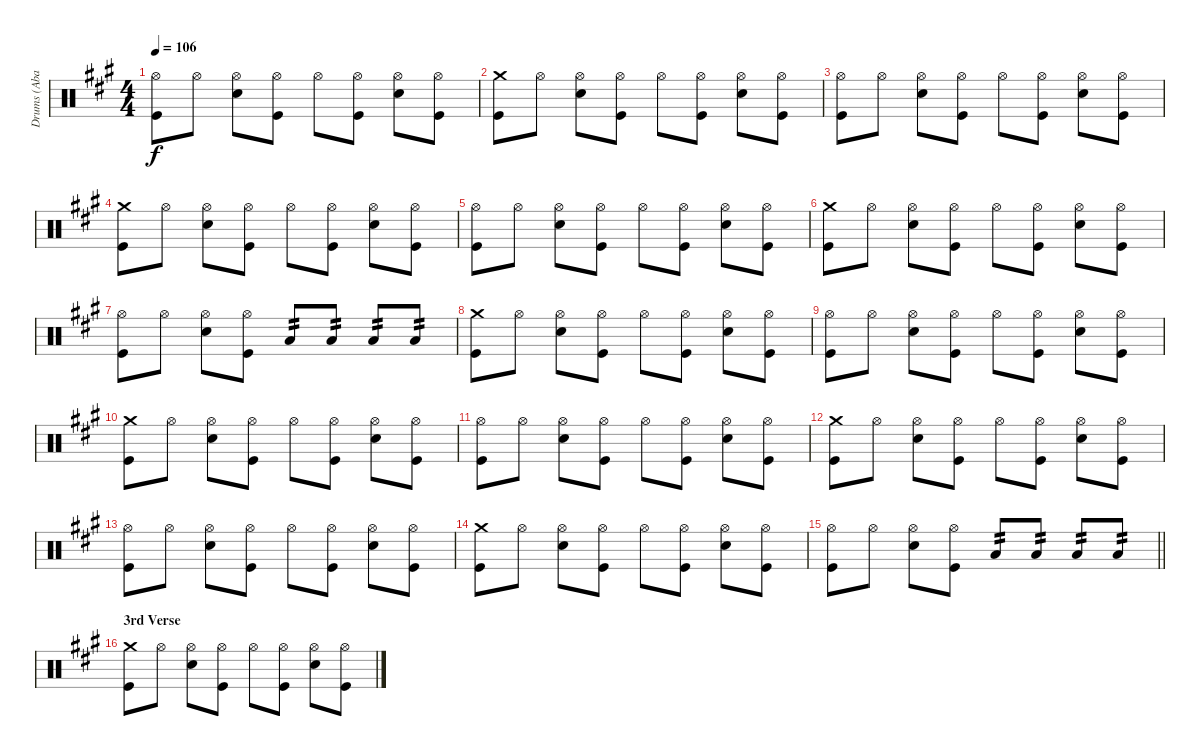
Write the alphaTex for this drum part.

\track ("Drums (Abaddon)" "Drums (Aba") {instrument percussion}
\staff {score}
\articulation defaults
\ts (4 4)
\tempo 106
\clef neutral
\ks f#minor
("Hi-Hat (open)" "Kick (hit)").8{dy f} "Hi-Hat (open)".8 ("Hi-Hat (open)" "Electric Snare (hit)").8 ("Hi-Hat (open)" "Kick (hit)").8 "Hi-Hat (open)".8 ("Hi-Hat (open)" "Kick (hit)").8 ("Hi-Hat (open)" "Electric Snare (hit)").8 ("Hi-Hat (open)" "Kick (hit)").8 |
("Crash medium (hit)" "Kick (hit)").8 "Hi-Hat (open)".8 ("Hi-Hat (open)" "Electric Snare (hit)").8 ("Hi-Hat (open)" "Kick (hit)").8 "Hi-Hat (open)".8 ("Hi-Hat (open)" "Kick (hit)").8 ("Hi-Hat (open)" "Electric Snare (hit)").8 ("Hi-Hat (open)" "Kick (hit)").8 |
("Hi-Hat (open)" "Kick (hit)").8 "Hi-Hat (open)".8 ("Hi-Hat (open)" "Electric Snare (hit)").8 ("Hi-Hat (open)" "Kick (hit)").8 "Hi-Hat (open)".8 ("Hi-Hat (open)" "Kick (hit)").8 ("Hi-Hat (open)" "Electric Snare (hit)").8 ("Hi-Hat (open)" "Kick (hit)").8 |
("Crash medium (hit)" "Kick (hit)").8 "Hi-Hat (open)".8 ("Hi-Hat (open)" "Electric Snare (hit)").8 ("Hi-Hat (open)" "Kick (hit)").8 "Hi-Hat (open)".8 ("Hi-Hat (open)" "Kick (hit)").8 ("Hi-Hat (open)" "Electric Snare (hit)").8 ("Hi-Hat (open)" "Kick (hit)").8 |
("Hi-Hat (open)" "Kick (hit)").8 "Hi-Hat (open)".8 ("Hi-Hat (open)" "Electric Snare (hit)").8 ("Hi-Hat (open)" "Kick (hit)").8 "Hi-Hat (open)".8 ("Hi-Hat (open)" "Kick (hit)").8 ("Hi-Hat (open)" "Electric Snare (hit)").8 ("Hi-Hat (open)" "Kick (hit)").8 |
("Crash medium (hit)" "Kick (hit)").8 "Hi-Hat (open)".8 ("Hi-Hat (open)" "Electric Snare (hit)").8 ("Hi-Hat (open)" "Kick (hit)").8 "Hi-Hat (open)".8 ("Hi-Hat (open)" "Kick (hit)").8 ("Hi-Hat (open)" "Electric Snare (hit)").8 ("Hi-Hat (open)" "Kick (hit)").8 |
("Hi-Hat (open)" "Kick (hit)").8 "Hi-Hat (open)".8 ("Hi-Hat (open)" "Electric Snare (hit)").8 ("Hi-Hat (open)" "Kick (hit)").8 "Low Floor Tom (hit)".8{tp 2} "Low Floor Tom (hit)".8{tp 2} "Low Tom (hit)".8{tp 2} "Low Tom (hit)".8{tp 2} |
("Crash medium (hit)" "Kick (hit)").8 "Hi-Hat (open)".8 ("Hi-Hat (open)" "Electric Snare (hit)").8 ("Hi-Hat (open)" "Kick (hit)").8 "Hi-Hat (open)".8 ("Hi-Hat (open)" "Kick (hit)").8 ("Hi-Hat (open)" "Electric Snare (hit)").8 ("Hi-Hat (open)" "Kick (hit)").8 |
("Hi-Hat (open)" "Kick (hit)").8 "Hi-Hat (open)".8 ("Hi-Hat (open)" "Electric Snare (hit)").8 ("Hi-Hat (open)" "Kick (hit)").8 "Hi-Hat (open)".8 ("Hi-Hat (open)" "Kick (hit)").8 ("Hi-Hat (open)" "Electric Snare (hit)").8 ("Hi-Hat (open)" "Kick (hit)").8 |
("Crash medium (hit)" "Kick (hit)").8 "Hi-Hat (open)".8 ("Hi-Hat (open)" "Electric Snare (hit)").8 ("Hi-Hat (open)" "Kick (hit)").8 "Hi-Hat (open)".8 ("Hi-Hat (open)" "Kick (hit)").8 ("Hi-Hat (open)" "Electric Snare (hit)").8 ("Hi-Hat (open)" "Kick (hit)").8 |
("Hi-Hat (open)" "Kick (hit)").8 "Hi-Hat (open)".8 ("Hi-Hat (open)" "Electric Snare (hit)").8 ("Hi-Hat (open)" "Kick (hit)").8 "Hi-Hat (open)".8 ("Hi-Hat (open)" "Kick (hit)").8 ("Hi-Hat (open)" "Electric Snare (hit)").8 ("Hi-Hat (open)" "Kick (hit)").8 |
("Crash medium (hit)" "Kick (hit)").8 "Hi-Hat (open)".8 ("Hi-Hat (open)" "Electric Snare (hit)").8 ("Hi-Hat (open)" "Kick (hit)").8 "Hi-Hat (open)".8 ("Hi-Hat (open)" "Kick (hit)").8 ("Hi-Hat (open)" "Electric Snare (hit)").8 ("Hi-Hat (open)" "Kick (hit)").8 |
("Hi-Hat (open)" "Kick (hit)").8 "Hi-Hat (open)".8 ("Hi-Hat (open)" "Electric Snare (hit)").8 ("Hi-Hat (open)" "Kick (hit)").8 "Hi-Hat (open)".8 ("Hi-Hat (open)" "Kick (hit)").8 ("Hi-Hat (open)" "Electric Snare (hit)").8 ("Hi-Hat (open)" "Kick (hit)").8 |
("Crash medium (hit)" "Kick (hit)").8 "Hi-Hat (open)".8 ("Hi-Hat (open)" "Electric Snare (hit)").8 ("Hi-Hat (open)" "Kick (hit)").8 "Hi-Hat (open)".8 ("Hi-Hat (open)" "Kick (hit)").8 ("Hi-Hat (open)" "Electric Snare (hit)").8 ("Hi-Hat (open)" "Kick (hit)").8 |
\barLineRight lightlight
("Hi-Hat (open)" "Kick (hit)").8 "Hi-Hat (open)".8 ("Hi-Hat (open)" "Electric Snare (hit)").8 ("Hi-Hat (open)" "Kick (hit)").8 "Low Floor Tom (hit)".8{tp 2} "Low Floor Tom (hit)".8{tp 2} "Low Tom (hit)".8{tp 2} "Low Tom (hit)".8{tp 2} |
\section ("" "3rd Verse")
("Crash medium (hit)" "Kick (hit)").8 "Hi-Hat (open)".8 ("Hi-Hat (open)" "Electric Snare (hit)").8 ("Hi-Hat (open)" "Kick (hit)").8 "Hi-Hat (open)".8 ("Hi-Hat (open)" "Kick (hit)").8 ("Hi-Hat (open)" "Electric Snare (hit)").8 ("Hi-Hat (open)" "Kick (hit)").8
